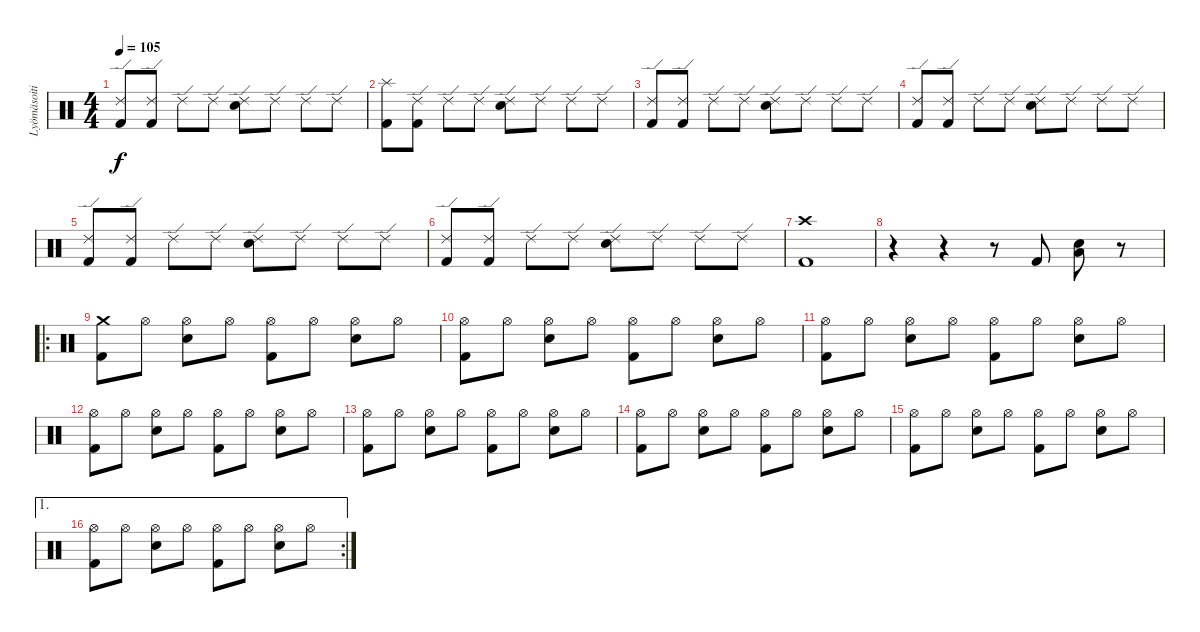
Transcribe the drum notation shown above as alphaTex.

\track ("Lyömäsoitin" "Lyömäsoiti") {instrument percussion}
\staff {score}
\articulation defaults
\ts (4 4)
\tempo 105
\clef neutral
\ks c
("Kick (hit) 2" "Ride (edge) 2").8{dy f} ("Kick (hit) 2" "Ride (edge) 2").8 "Ride (edge) 2".8 "Ride (edge) 2".8 ("Electric Snare (hit)" "Ride (edge) 2").8 "Ride (edge) 2".8 "Ride (edge) 2".8 "Ride (edge) 2".8 |
("Kick (hit) 2" "Splash (hit)").8 ("Kick (hit) 2" "Ride (edge) 2").8 "Ride (edge) 2".8 "Ride (edge) 2".8 ("Electric Snare (hit)" "Ride (edge) 2").8 "Ride (edge) 2".8 "Ride (edge) 2".8 "Ride (edge) 2".8 |
("Kick (hit) 2" "Ride (edge) 2").8 ("Kick (hit) 2" "Ride (edge) 2").8 "Ride (edge) 2".8 "Ride (edge) 2".8 ("Electric Snare (hit)" "Ride (edge) 2").8 "Ride (edge) 2".8 "Ride (edge) 2".8 "Ride (edge) 2".8 |
("Kick (hit) 2" "Ride (edge) 2").8 ("Kick (hit) 2" "Ride (edge) 2").8 "Ride (edge) 2".8 "Ride (edge) 2".8 ("Electric Snare (hit)" "Ride (edge) 2").8 "Ride (edge) 2".8 "Ride (edge) 2".8 "Ride (edge) 2".8 |
("Kick (hit) 2" "Ride (edge) 2").8 ("Kick (hit) 2" "Ride (edge) 2").8 "Ride (edge) 2".8 "Ride (edge) 2".8 ("Electric Snare (hit)" "Ride (edge) 2").8 "Ride (edge) 2".8 "Ride (edge) 2".8 "Ride (edge) 2".8 |
("Kick (hit) 2" "Ride (edge) 2").8 ("Kick (hit) 2" "Ride (edge) 2").8 "Ride (edge) 2".8 "Ride (edge) 2".8 ("Electric Snare (hit)" "Ride (edge) 2").8 "Ride (edge) 2".8 "Ride (edge) 2".8 "Ride (edge) 2".8 |
("Kick (hit) 2" "Crash high (hit)").1 |
r.4 r.4 r.8 "Kick (hit) 2".8 ("Electric Snare (hit)" "Low Tom (hit)").8 r.8 |
\ro
("Kick (hit) 2" "Crash medium (hit)").8 "Hi-Hat (open)".8 ("Electric Snare (hit)" "Hi-Hat (open)").8 "Hi-Hat (open)".8 ("Kick (hit) 2" "Hi-Hat (open)").8 "Hi-Hat (open)".8 ("Electric Snare (hit)" "Hi-Hat (open)").8 "Hi-Hat (open)".8 |
("Kick (hit) 2" "Hi-Hat (open)").8 "Hi-Hat (open)".8 ("Electric Snare (hit)" "Hi-Hat (open)").8 "Hi-Hat (open)".8 ("Kick (hit) 2" "Hi-Hat (open)").8 "Hi-Hat (open)".8 ("Electric Snare (hit)" "Hi-Hat (open)").8 "Hi-Hat (open)".8 |
("Kick (hit) 2" "Hi-Hat (open)").8 "Hi-Hat (open)".8 ("Electric Snare (hit)" "Hi-Hat (open)").8 "Hi-Hat (open)".8 ("Kick (hit) 2" "Hi-Hat (open)").8 "Hi-Hat (open)".8 ("Electric Snare (hit)" "Hi-Hat (open)").8 "Hi-Hat (open)".8 |
("Kick (hit) 2" "Hi-Hat (open)").8 "Hi-Hat (open)".8 ("Electric Snare (hit)" "Hi-Hat (open)").8 "Hi-Hat (open)".8 ("Kick (hit) 2" "Hi-Hat (open)").8 "Hi-Hat (open)".8 ("Electric Snare (hit)" "Hi-Hat (open)").8 "Hi-Hat (open)".8 |
("Kick (hit) 2" "Hi-Hat (open)").8 "Hi-Hat (open)".8 ("Electric Snare (hit)" "Hi-Hat (open)").8 "Hi-Hat (open)".8 ("Kick (hit) 2" "Hi-Hat (open)").8 "Hi-Hat (open)".8 ("Electric Snare (hit)" "Hi-Hat (open)").8 "Hi-Hat (open)".8 |
("Kick (hit) 2" "Hi-Hat (open)").8 "Hi-Hat (open)".8 ("Electric Snare (hit)" "Hi-Hat (open)").8 "Hi-Hat (open)".8 ("Kick (hit) 2" "Hi-Hat (open)").8 "Hi-Hat (open)".8 ("Electric Snare (hit)" "Hi-Hat (open)").8 "Hi-Hat (open)".8 |
("Kick (hit) 2" "Hi-Hat (open)").8 "Hi-Hat (open)".8 ("Electric Snare (hit)" "Hi-Hat (open)").8 "Hi-Hat (open)".8 ("Kick (hit) 2" "Hi-Hat (open)").8 "Hi-Hat (open)".8 ("Electric Snare (hit)" "Hi-Hat (open)").8 "Hi-Hat (open)".8 |
\ae 1
\rc 2
("Kick (hit) 2" "Hi-Hat (open)").8 "Hi-Hat (open)".8 ("Electric Snare (hit)" "Hi-Hat (open)").8 "Hi-Hat (open)".8 ("Kick (hit) 2" "Hi-Hat (open)").8 "Hi-Hat (open)".8 ("Electric Snare (hit)" "Hi-Hat (open)").8 "Hi-Hat (open)".8
